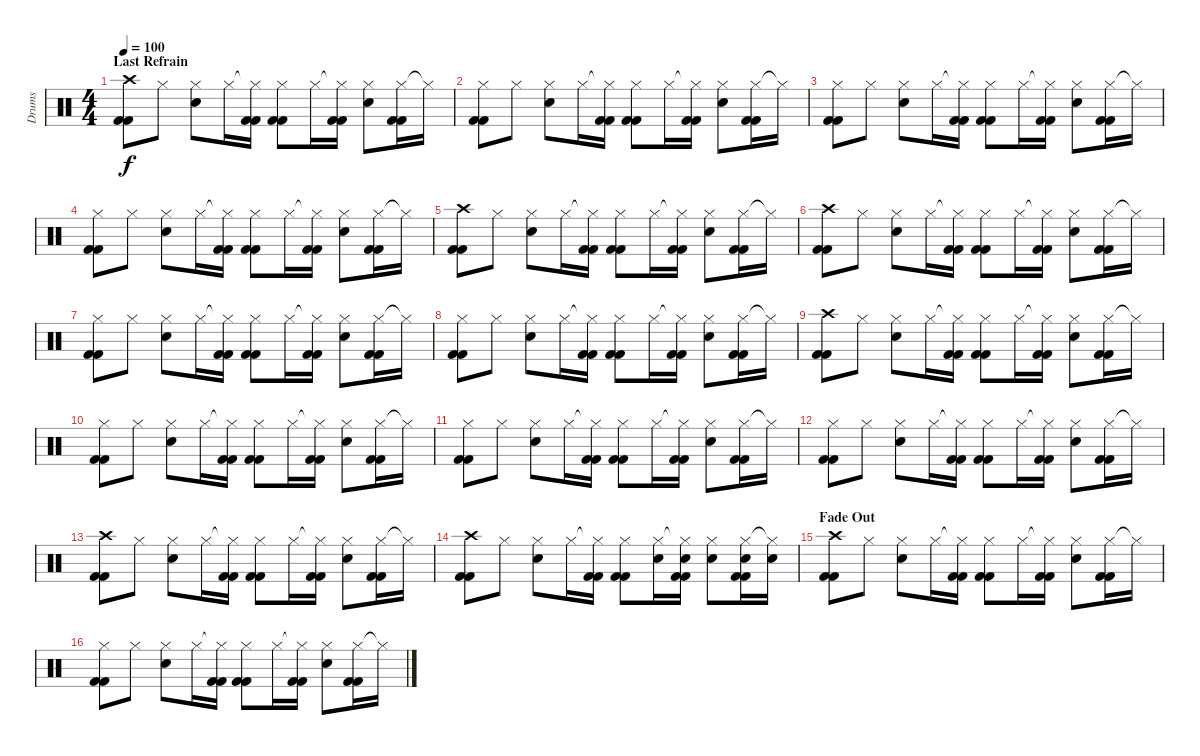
\track ("Drums" "Drums") {instrument percussion}
\staff {score}
\articulation defaults
\ts (4 4)
\section ("" "Last Refrain")
\tempo 100
\clef neutral
\ks c
("Crash high (hit)" "Kick (hit) 2" "Kick (hit) 2").8{dy f} "Hi-Hat (closed)".8 ("Hi-Hat (closed)" "Electric Snare (hit)").8 "Hi-Hat (closed)".16 ("Hi-Hat (closed)"{t} "Kick (hit) 2" "Kick (hit) 2").16 ("Hi-Hat (closed)" "Kick (hit) 2" "Kick (hit) 2").8 "Hi-Hat (closed)".16 ("Hi-Hat (closed)"{t} "Kick (hit) 2" "Kick (hit) 2").16 ("Hi-Hat (closed)" "Electric Snare (hit)").8 ("Hi-Hat (closed)" "Kick (hit) 2" "Kick (hit) 2").16 "Hi-Hat (closed)"{t}.16 |
("Hi-Hat (closed)" "Kick (hit) 2" "Kick (hit) 2").8 "Hi-Hat (closed)".8 ("Hi-Hat (closed)" "Electric Snare (hit)").8 "Hi-Hat (closed)".16 ("Hi-Hat (closed)"{t} "Kick (hit) 2" "Kick (hit) 2").16 ("Hi-Hat (closed)" "Kick (hit) 2" "Kick (hit) 2").8 "Hi-Hat (closed)".16 ("Hi-Hat (closed)"{t} "Kick (hit) 2" "Kick (hit) 2").16 ("Hi-Hat (closed)" "Electric Snare (hit)").8 ("Hi-Hat (closed)" "Kick (hit) 2" "Kick (hit) 2").16 "Hi-Hat (closed)"{t}.16 |
("Hi-Hat (closed)" "Kick (hit) 2" "Kick (hit) 2").8 "Hi-Hat (closed)".8 ("Hi-Hat (closed)" "Electric Snare (hit)").8 "Hi-Hat (closed)".16 ("Hi-Hat (closed)"{t} "Kick (hit) 2" "Kick (hit) 2").16 ("Hi-Hat (closed)" "Kick (hit) 2" "Kick (hit) 2").8 "Hi-Hat (closed)".16 ("Hi-Hat (closed)"{t} "Kick (hit) 2" "Kick (hit) 2").16 ("Hi-Hat (closed)" "Electric Snare (hit)").8 ("Hi-Hat (closed)" "Kick (hit) 2" "Kick (hit) 2").16 "Hi-Hat (closed)"{t}.16 |
("Hi-Hat (closed)" "Kick (hit) 2" "Kick (hit) 2").8 "Hi-Hat (closed)".8 ("Hi-Hat (closed)" "Electric Snare (hit)").8 "Hi-Hat (closed)".16 ("Hi-Hat (closed)"{t} "Kick (hit) 2" "Kick (hit) 2").16 ("Hi-Hat (closed)" "Kick (hit) 2" "Kick (hit) 2").8 "Hi-Hat (closed)".16 ("Hi-Hat (closed)"{t} "Kick (hit) 2" "Kick (hit) 2").16 ("Hi-Hat (closed)" "Electric Snare (hit)").8 ("Hi-Hat (closed)" "Kick (hit) 2" "Kick (hit) 2").16 "Hi-Hat (closed)"{t}.16 |
("Crash high (hit)" "Kick (hit) 2" "Kick (hit) 2").8 "Hi-Hat (closed)".8 ("Hi-Hat (closed)" "Electric Snare (hit)").8 "Hi-Hat (closed)".16 ("Hi-Hat (closed)"{t} "Kick (hit) 2" "Kick (hit) 2").16 ("Hi-Hat (closed)" "Kick (hit) 2" "Kick (hit) 2").8 "Hi-Hat (closed)".16 ("Hi-Hat (closed)"{t} "Kick (hit) 2" "Kick (hit) 2").16 ("Hi-Hat (closed)" "Electric Snare (hit)").8 ("Hi-Hat (closed)" "Kick (hit) 2" "Kick (hit) 2").16 "Hi-Hat (closed)"{t}.16 |
("Crash high (hit)" "Kick (hit) 2" "Kick (hit) 2").8 "Hi-Hat (closed)".8 ("Hi-Hat (closed)" "Electric Snare (hit)").8 "Hi-Hat (closed)".16 ("Hi-Hat (closed)"{t} "Kick (hit) 2" "Kick (hit) 2").16 ("Hi-Hat (closed)" "Kick (hit) 2" "Kick (hit) 2").8 "Hi-Hat (closed)".16 ("Hi-Hat (closed)"{t} "Kick (hit) 2" "Kick (hit) 2").16 ("Hi-Hat (closed)" "Electric Snare (hit)").8 ("Hi-Hat (closed)" "Kick (hit) 2" "Kick (hit) 2").16 "Hi-Hat (closed)"{t}.16 |
("Hi-Hat (closed)" "Kick (hit) 2" "Kick (hit) 2").8 "Hi-Hat (closed)".8 ("Hi-Hat (closed)" "Electric Snare (hit)").8 "Hi-Hat (closed)".16 ("Hi-Hat (closed)"{t} "Kick (hit) 2" "Kick (hit) 2").16 ("Hi-Hat (closed)" "Kick (hit) 2" "Kick (hit) 2").8 "Hi-Hat (closed)".16 ("Hi-Hat (closed)"{t} "Kick (hit) 2" "Kick (hit) 2").16 ("Hi-Hat (closed)" "Electric Snare (hit)").8 ("Hi-Hat (closed)" "Kick (hit) 2" "Kick (hit) 2").16 "Hi-Hat (closed)"{t}.16 |
("Hi-Hat (closed)" "Kick (hit) 2" "Kick (hit) 2").8 "Hi-Hat (closed)".8 ("Hi-Hat (closed)" "Electric Snare (hit)").8 "Hi-Hat (closed)".16 ("Hi-Hat (closed)"{t} "Kick (hit) 2" "Kick (hit) 2").16 ("Hi-Hat (closed)" "Kick (hit) 2" "Kick (hit) 2").8 "Hi-Hat (closed)".16 ("Hi-Hat (closed)"{t} "Kick (hit) 2" "Kick (hit) 2").16 ("Hi-Hat (closed)" "Electric Snare (hit)").8 ("Hi-Hat (closed)" "Kick (hit) 2" "Kick (hit) 2").16 "Hi-Hat (closed)"{t}.16 |
("Crash high (hit)" "Kick (hit) 2" "Kick (hit) 2").8 "Hi-Hat (closed)".8 ("Hi-Hat (closed)" "Electric Snare (hit)").8 "Hi-Hat (closed)".16 ("Hi-Hat (closed)"{t} "Kick (hit) 2" "Kick (hit) 2").16 ("Hi-Hat (closed)" "Kick (hit) 2" "Kick (hit) 2").8 "Hi-Hat (closed)".16 ("Hi-Hat (closed)"{t} "Kick (hit) 2" "Kick (hit) 2").16 ("Hi-Hat (closed)" "Electric Snare (hit)").8 ("Hi-Hat (closed)" "Kick (hit) 2" "Kick (hit) 2").16 "Hi-Hat (closed)"{t}.16 |
("Hi-Hat (closed)" "Kick (hit) 2" "Kick (hit) 2").8 "Hi-Hat (closed)".8 ("Hi-Hat (closed)" "Electric Snare (hit)").8 "Hi-Hat (closed)".16 ("Hi-Hat (closed)"{t} "Kick (hit) 2" "Kick (hit) 2").16 ("Hi-Hat (closed)" "Kick (hit) 2" "Kick (hit) 2").8 "Hi-Hat (closed)".16 ("Hi-Hat (closed)"{t} "Kick (hit) 2" "Kick (hit) 2").16 ("Hi-Hat (closed)" "Electric Snare (hit)").8 ("Hi-Hat (closed)" "Kick (hit) 2" "Kick (hit) 2").16 "Hi-Hat (closed)"{t}.16 |
("Hi-Hat (closed)" "Kick (hit) 2" "Kick (hit) 2").8 "Hi-Hat (closed)".8 ("Hi-Hat (closed)" "Electric Snare (hit)").8 "Hi-Hat (closed)".16 ("Hi-Hat (closed)"{t} "Kick (hit) 2" "Kick (hit) 2").16 ("Hi-Hat (closed)" "Kick (hit) 2" "Kick (hit) 2").8 "Hi-Hat (closed)".16 ("Hi-Hat (closed)"{t} "Kick (hit) 2" "Kick (hit) 2").16 ("Hi-Hat (closed)" "Electric Snare (hit)").8 ("Hi-Hat (closed)" "Kick (hit) 2" "Kick (hit) 2").16 "Hi-Hat (closed)"{t}.16 |
("Hi-Hat (closed)" "Kick (hit) 2" "Kick (hit) 2").8 "Hi-Hat (closed)".8 ("Hi-Hat (closed)" "Electric Snare (hit)").8 "Hi-Hat (closed)".16 ("Hi-Hat (closed)"{t} "Kick (hit) 2" "Kick (hit) 2").16 ("Hi-Hat (closed)" "Kick (hit) 2" "Kick (hit) 2").8 "Hi-Hat (closed)".16 ("Hi-Hat (closed)"{t} "Kick (hit) 2" "Kick (hit) 2").16 ("Hi-Hat (closed)" "Electric Snare (hit)").8 ("Hi-Hat (closed)" "Kick (hit) 2" "Kick (hit) 2").16 "Hi-Hat (closed)"{t}.16 |
("Crash high (hit)" "Kick (hit) 2" "Kick (hit) 2").8 "Hi-Hat (closed)".8 ("Hi-Hat (closed)" "Electric Snare (hit)").8 "Hi-Hat (closed)".16 ("Hi-Hat (closed)"{t} "Kick (hit) 2" "Kick (hit) 2").16 ("Hi-Hat (closed)" "Kick (hit) 2" "Kick (hit) 2").8 "Hi-Hat (closed)".16 ("Hi-Hat (closed)"{t} "Kick (hit) 2" "Kick (hit) 2").16 ("Hi-Hat (closed)" "Electric Snare (hit)").8 ("Hi-Hat (closed)" "Kick (hit) 2" "Kick (hit) 2").16 "Hi-Hat (closed)"{t}.16 |
("Crash high (hit)" "Kick (hit) 2" "Kick (hit) 2").8 "Hi-Hat (closed)".8 ("Hi-Hat (closed)" "Electric Snare (hit)").8 "Hi-Hat (closed)".16 ("Hi-Hat (closed)"{t} "Kick (hit) 2" "Kick (hit) 2").16 ("Hi-Hat (closed)" "Kick (hit) 2" "Kick (hit) 2").8 ("Hi-Hat (closed)" "Electric Snare (hit)").16 ("Hi-Hat (closed)"{t} "Electric Snare (hit)" "Kick (hit) 2" "Kick (hit) 2").16 ("Hi-Hat (closed)" "Electric Snare (hit)").8 ("Hi-Hat (closed)" "Electric Snare (hit)" "Kick (hit) 2" "Kick (hit) 2").16 ("Hi-Hat (closed)"{t} "Electric Snare (hit)").16 |
\section ("" "Fade Out")
("Crash high (hit)" "Kick (hit) 2" "Kick (hit) 2").8 "Hi-Hat (closed)".8 ("Hi-Hat (closed)" "Electric Snare (hit)").8 "Hi-Hat (closed)".16 ("Hi-Hat (closed)"{t} "Kick (hit) 2" "Kick (hit) 2").16 ("Hi-Hat (closed)" "Kick (hit) 2" "Kick (hit) 2").8 "Hi-Hat (closed)".16 ("Hi-Hat (closed)"{t} "Kick (hit) 2" "Kick (hit) 2").16 ("Hi-Hat (closed)" "Electric Snare (hit)").8 ("Hi-Hat (closed)" "Kick (hit) 2" "Kick (hit) 2").16 "Hi-Hat (closed)"{t}.16 |
("Hi-Hat (closed)" "Kick (hit) 2" "Kick (hit) 2").8 "Hi-Hat (closed)".8 ("Hi-Hat (closed)" "Electric Snare (hit)").8 "Hi-Hat (closed)".16 ("Hi-Hat (closed)"{t} "Kick (hit) 2" "Kick (hit) 2").16 ("Hi-Hat (closed)" "Kick (hit) 2" "Kick (hit) 2").8 "Hi-Hat (closed)".16 ("Hi-Hat (closed)"{t} "Kick (hit) 2" "Kick (hit) 2").16 ("Hi-Hat (closed)" "Electric Snare (hit)").8 ("Hi-Hat (closed)" "Kick (hit) 2" "Kick (hit) 2").16 "Hi-Hat (closed)"{t}.16
